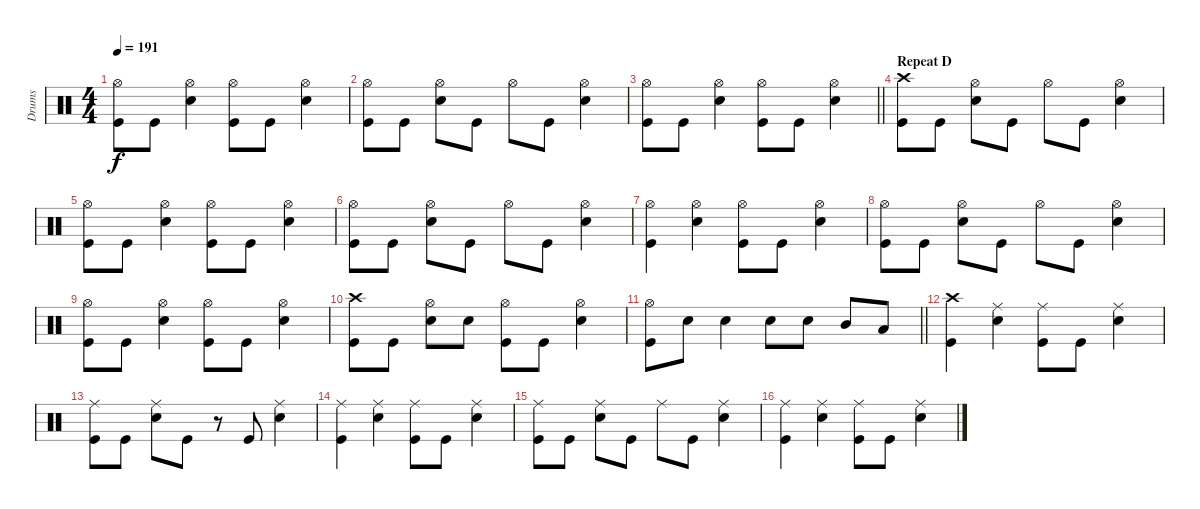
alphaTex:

\track ("Drums" "Drums") {instrument percussion}
\staff {score}
\articulation defaults
\ts (4 4)
\tempo 191
\clef neutral
\ks c
("Hi-Hat (open)" "Kick (hit)").8{dy f} "Kick (hit)".8 ("Hi-Hat (open)" "Electric Snare (hit)").4 ("Hi-Hat (open)" "Kick (hit)").8 "Kick (hit)".8 ("Hi-Hat (open)" "Electric Snare (hit)").4 |
("Hi-Hat (open)" "Kick (hit)").8 "Kick (hit)".8 ("Hi-Hat (open)" "Electric Snare (hit)").8 "Kick (hit)".8 "Hi-Hat (open)".8 "Kick (hit)".8 ("Hi-Hat (open)" "Electric Snare (hit)").4 |
\barLineRight lightlight
("Hi-Hat (open)" "Kick (hit)").8 "Kick (hit)".8 ("Hi-Hat (open)" "Electric Snare (hit)").4 ("Hi-Hat (open)" "Kick (hit)").8 "Kick (hit)".8 ("Hi-Hat (open)" "Electric Snare (hit)").4 |
\section ("" "Repeat D")
("Crash high (hit)" "Kick (hit)").8 "Kick (hit)".8 ("Hi-Hat (open)" "Electric Snare (hit)").8 "Kick (hit)".8 "Hi-Hat (open)".8 "Kick (hit)".8 ("Hi-Hat (open)" "Electric Snare (hit)").4 |
("Hi-Hat (open)" "Kick (hit)").8 "Kick (hit)".8 ("Hi-Hat (open)" "Electric Snare (hit)").4 ("Hi-Hat (open)" "Kick (hit)").8 "Kick (hit)".8 ("Hi-Hat (open)" "Electric Snare (hit)").4 |
("Hi-Hat (open)" "Kick (hit)").8 "Kick (hit)".8 ("Hi-Hat (open)" "Electric Snare (hit)").8 "Kick (hit)".8 "Hi-Hat (open)".8 "Kick (hit)".8 ("Hi-Hat (open)" "Electric Snare (hit)").4 |
("Hi-Hat (open)" "Kick (hit)").4 ("Hi-Hat (open)" "Electric Snare (hit)").4 ("Hi-Hat (open)" "Kick (hit)").8 "Kick (hit)".8 ("Hi-Hat (open)" "Electric Snare (hit)").4 |
("Hi-Hat (open)" "Kick (hit)").8 "Kick (hit)".8 ("Hi-Hat (open)" "Electric Snare (hit)").8 "Kick (hit)".8 "Hi-Hat (open)".8 "Kick (hit)".8 ("Hi-Hat (open)" "Electric Snare (hit)").4 |
("Hi-Hat (open)" "Kick (hit)").8 "Kick (hit)".8 ("Hi-Hat (open)" "Electric Snare (hit)").4 ("Hi-Hat (open)" "Kick (hit)").8 "Kick (hit)".8 ("Hi-Hat (open)" "Electric Snare (hit)").4 |
("Crash high (hit)" "Kick (hit)").8 "Kick (hit)".8 ("Hi-Hat (open)" "Electric Snare (hit)").8 "Electric Snare (hit)".8 ("Hi-Hat (open)" "Kick (hit)").8 "Kick (hit)".8 ("Hi-Hat (open)" "Electric Snare (hit)").4 |
\barLineRight lightlight
("Hi-Hat (open)" "Kick (hit)").8 "Electric Snare (hit)".8 "Electric Snare (hit)".4 "Electric Snare (hit)".8 "Electric Snare (hit)".8 "Mid Tom (hit)".8 "Low Tom (hit)".8 |
("Crash high (hit)" "Kick (hit)").4 ("Ride (middle)" "Electric Snare (hit)").4 ("Ride (middle)" "Kick (hit)").8 "Kick (hit)".8 ("Ride (middle)" "Electric Snare (hit)").4 |
("Ride (middle)" "Kick (hit)").8 "Kick (hit)".8 ("Ride (middle)" "Electric Snare (hit)").8 "Kick (hit)".8 r.8 "Kick (hit)".8 ("Ride (middle)" "Electric Snare (hit)").4 |
("Ride (middle)" "Kick (hit)").4 ("Ride (middle)" "Electric Snare (hit)").4 ("Ride (middle)" "Kick (hit)").8 "Kick (hit)".8 ("Ride (middle)" "Electric Snare (hit)").4 |
("Ride (middle)" "Kick (hit)").8 "Kick (hit)".8 ("Ride (middle)" "Electric Snare (hit)").8 "Kick (hit)".8 "Ride (middle)".8 "Kick (hit)".8 ("Ride (middle)" "Electric Snare (hit)").4 |
("Ride (middle)" "Kick (hit)").4 ("Ride (middle)" "Electric Snare (hit)").4 ("Ride (middle)" "Kick (hit)").8 "Kick (hit)".8 ("Ride (middle)" "Electric Snare (hit)").4
